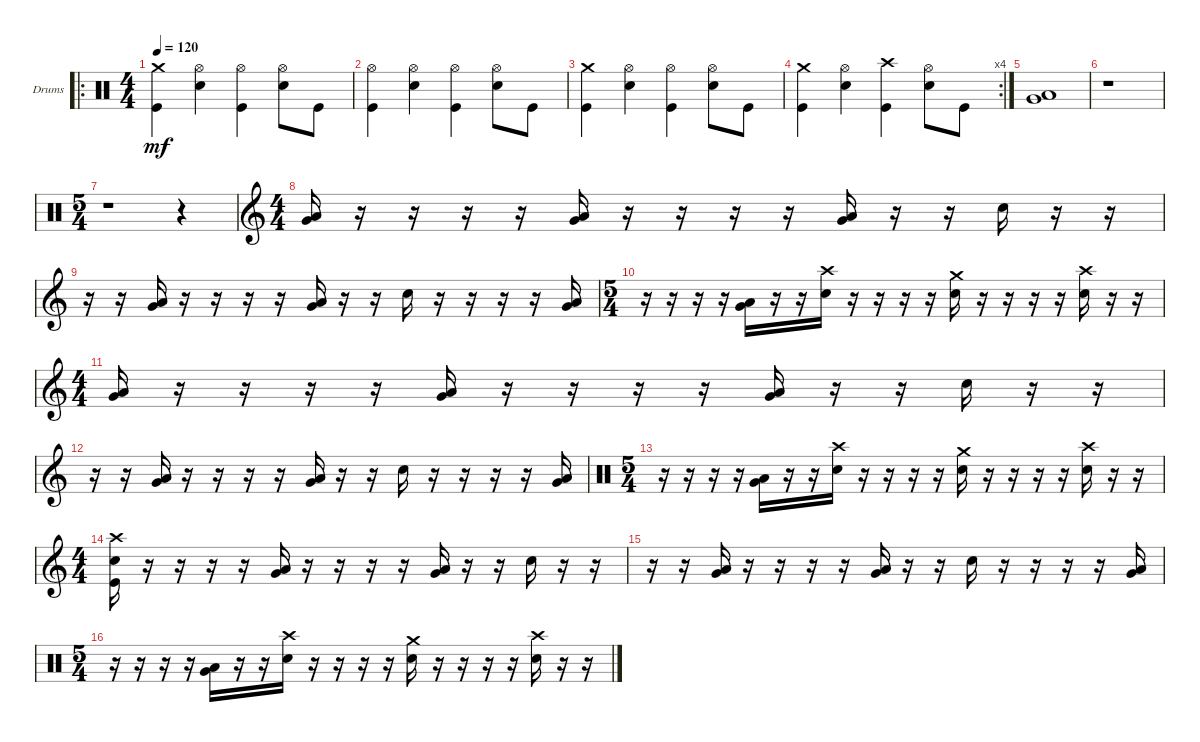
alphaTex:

\bracketExtendMode groupsimilarinstruments
\firstSystemTrackNameOrientation horizontal
\otherSystemsTrackNameOrientation horizontal
\track ("Drums" "Drums") {instrument percussion}
\staff {score}
\articulation defaults
\ro
\ts (4 4)
\tempo 120
\clef neutral
\ks c
("Kick (hit)" "Crash medium (hit)").4{dy mf} ("Snare (hit) 2" "Hi-Hat (open)").4 ("Kick (hit)" "Hi-Hat (open)").4 ("Snare (hit) 2" "Hi-Hat (open)").8 "Kick (hit)".8 |
("Kick (hit)" "Hi-Hat (open)").4 ("Snare (hit) 2" "Hi-Hat (open)").4 ("Kick (hit)" "Hi-Hat (open)").4 ("Snare (hit) 2" "Hi-Hat (open)").8 "Kick (hit)".8 |
("Kick (hit)" "Crash medium (hit)").4 ("Snare (hit) 2" "Hi-Hat (open)").4 ("Kick (hit)" "Hi-Hat (open)").4 ("Snare (hit) 2" "Hi-Hat (open)").8 "Kick (hit)".8 |
\rc 4
("Kick (hit)" "Crash medium (hit)").4 ("Snare (hit) 2" "Hi-Hat (open)").4 ("Kick (hit)" "Crash high (hit)").4 ("Snare (hit) 2" "Hi-Hat (open)").8 "Kick (hit)".8 |
("Very Low Tom (hit)" "Low Tom (hit)").1 |
r.1 |
\ts (5 4)
r.1 r.4 |
\ts (4 4)
\clef g2
("Very Low Tom (hit)" "Low Tom (hit)").16 r.16 r.16 r.16 r.16 ("Very Low Tom (hit)" "Low Tom (hit)").16 r.16 r.16 r.16 r.16 ("Very Low Tom (hit)" "Low Tom (hit)").16 r.16 r.16 "Snare (hit) 2".16 r.16 r.16 |
r.16 r.16 ("Very Low Tom (hit)" "Low Tom (hit)").16 r.16 r.16 r.16 r.16 ("Very Low Tom (hit)" "Low Tom (hit)").16 r.16 r.16 "Snare (hit) 2".16 r.16 r.16 r.16 r.16 ("Very Low Tom (hit)" "Low Tom (hit)").16 |
\ts (5 4)
r.16 r.16 r.16 r.16 ("Very Low Tom (hit)" "Low Tom (hit)").16 r.16 r.16 ("Snare (hit) 2" "Crash high (hit)").16 r.16 r.16 r.16 r.16 ("Snare (hit) 2" "Crash medium (hit)").16 r.16 r.16 r.16 r.16 ("Snare (hit) 2" "Crash high (hit)").16 r.16 r.16 |
\ts (4 4)
("Very Low Tom (hit)" "Low Tom (hit)").16 r.16 r.16 r.16 r.16 ("Very Low Tom (hit)" "Low Tom (hit)").16 r.16 r.16 r.16 r.16 ("Very Low Tom (hit)" "Low Tom (hit)").16 r.16 r.16 "Snare (hit) 2".16 r.16 r.16 |
r.16 r.16 ("Very Low Tom (hit)" "Low Tom (hit)").16 r.16 r.16 r.16 r.16 ("Very Low Tom (hit)" "Low Tom (hit)").16 r.16 r.16 "Snare (hit) 2".16 r.16 r.16 r.16 r.16 ("Very Low Tom (hit)" "Low Tom (hit)").16 |
\ts (5 4)
\clef neutral
r.16 r.16 r.16 r.16 ("Very Low Tom (hit)" "Low Tom (hit)").16 r.16 r.16 ("Snare (hit) 2" "Crash high (hit)").16 r.16 r.16 r.16 r.16 ("Snare (hit) 2" "Crash medium (hit)").16 r.16 r.16 r.16 r.16 ("Snare (hit) 2" "Crash high (hit)").16 r.16 r.16 |
\ts (4 4)
\clef g2
("Kick (hit)" "Snare (hit) 2" "Crash high (hit)").16 r.16 r.16 r.16 r.16 ("Very Low Tom (hit)" "Low Tom (hit)").16 r.16 r.16 r.16 r.16 ("Very Low Tom (hit)" "Low Tom (hit)").16 r.16 r.16 "Snare (hit) 2".16 r.16 r.16 |
r.16 r.16 ("Very Low Tom (hit)" "Low Tom (hit)").16 r.16 r.16 r.16 r.16 ("Very Low Tom (hit)" "Low Tom (hit)").16 r.16 r.16 "Snare (hit) 2".16 r.16 r.16 r.16 r.16 ("Very Low Tom (hit)" "Low Tom (hit)").16 |
\ts (5 4)
\clef neutral
r.16 r.16 r.16 r.16 ("Very Low Tom (hit)" "Low Tom (hit)").16 r.16 r.16 ("Snare (hit) 2" "Crash high (hit)").16 r.16 r.16 r.16 r.16 ("Snare (hit) 2" "Crash medium (hit)").16 r.16 r.16 r.16 r.16 ("Snare (hit) 2" "Crash high (hit)").16 r.16 r.16
